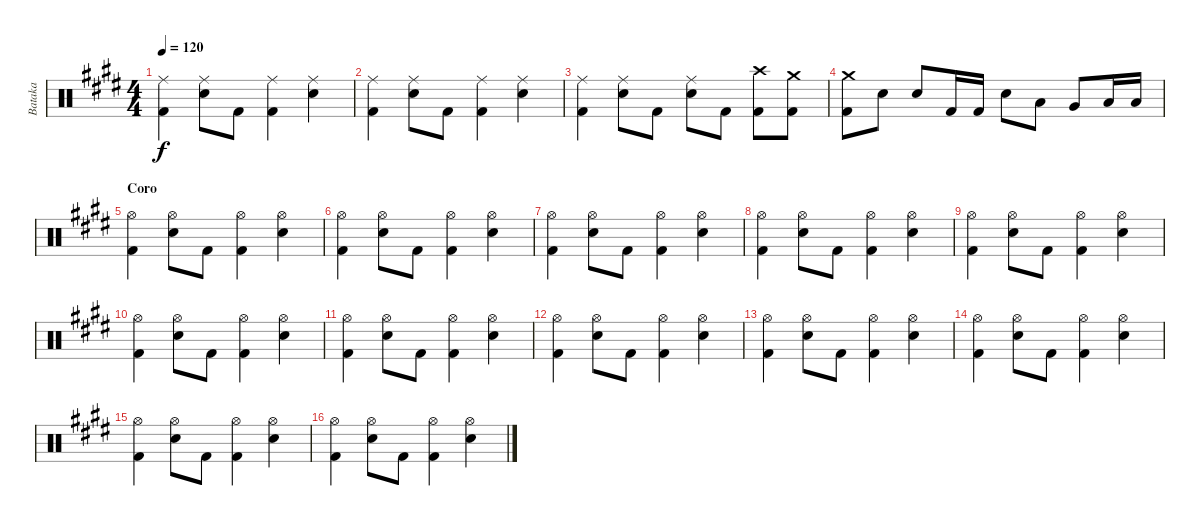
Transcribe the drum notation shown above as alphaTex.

\track ("Bataka" "Bataka") {instrument percussion}
\staff {score}
\articulation defaults
\ts (4 4)
\tempo 120
\clef neutral
\ks e
("Ride (middle)" "Kick (hit) 2").4{dy f} ("Ride (middle)" "Electric Snare (hit)").8 "Kick (hit) 2".8 ("Ride (middle)" "Kick (hit) 2").4 ("Ride (middle)" "Electric Snare (hit)").4 |
("Ride (middle)" "Kick (hit) 2").4 ("Ride (middle)" "Electric Snare (hit)").8 "Kick (hit) 2".8 ("Ride (middle)" "Kick (hit) 2").4 ("Ride (middle)" "Electric Snare (hit)").4 |
("Ride (middle)" "Kick (hit) 2").4 ("Ride (middle)" "Electric Snare (hit)").8 "Kick (hit) 2".8 ("Ride (middle)" "Electric Snare (hit)").8 "Kick (hit) 2".8 ("Crash high (hit)" "Kick (hit) 2").8 ("Crash medium (hit)" "Kick (hit) 2").8 |
("Crash medium (hit)" "Kick (hit) 2").8 "Electric Snare (hit)".8 "Electric Snare (hit)".8 "Kick (hit) 2".16 "Kick (hit) 2".16 "Electric Snare (hit)".8 "Low Tom (hit)".8 "Very Low Tom (hit)".8 "Low Floor Tom (hit)".16 "Low Floor Tom (hit)".16 |
\section ("" "Coro")
("Hi-Hat (open)" "Kick (hit) 2").4 ("Hi-Hat (open)" "Electric Snare (hit)").8 "Kick (hit) 2".8 ("Hi-Hat (open)" "Kick (hit) 2").4 ("Hi-Hat (open)" "Electric Snare (hit)").4 |
("Hi-Hat (open)" "Kick (hit) 2").4 ("Hi-Hat (open)" "Electric Snare (hit)").8 "Kick (hit) 2".8 ("Hi-Hat (open)" "Kick (hit) 2").4 ("Hi-Hat (open)" "Electric Snare (hit)").4 |
("Hi-Hat (open)" "Kick (hit) 2").4 ("Hi-Hat (open)" "Electric Snare (hit)").8 "Kick (hit) 2".8 ("Hi-Hat (open)" "Kick (hit) 2").4 ("Hi-Hat (open)" "Electric Snare (hit)").4 |
("Hi-Hat (open)" "Kick (hit) 2").4 ("Hi-Hat (open)" "Electric Snare (hit)").8 "Kick (hit) 2".8 ("Hi-Hat (open)" "Kick (hit) 2").4 ("Hi-Hat (open)" "Electric Snare (hit)").4 |
("Hi-Hat (open)" "Kick (hit) 2").4 ("Hi-Hat (open)" "Electric Snare (hit)").8 "Kick (hit) 2".8 ("Hi-Hat (open)" "Kick (hit) 2").4 ("Hi-Hat (open)" "Electric Snare (hit)").4 |
("Hi-Hat (open)" "Kick (hit) 2").4 ("Hi-Hat (open)" "Electric Snare (hit)").8 "Kick (hit) 2".8 ("Hi-Hat (open)" "Kick (hit) 2").4 ("Hi-Hat (open)" "Electric Snare (hit)").4 |
("Hi-Hat (open)" "Kick (hit) 2").4 ("Hi-Hat (open)" "Electric Snare (hit)").8 "Kick (hit) 2".8 ("Hi-Hat (open)" "Kick (hit) 2").4 ("Hi-Hat (open)" "Electric Snare (hit)").4 |
("Hi-Hat (open)" "Kick (hit) 2").4 ("Hi-Hat (open)" "Electric Snare (hit)").8 "Kick (hit) 2".8 ("Hi-Hat (open)" "Kick (hit) 2").4 ("Hi-Hat (open)" "Electric Snare (hit)").4 |
("Hi-Hat (open)" "Kick (hit) 2").4 ("Hi-Hat (open)" "Electric Snare (hit)").8 "Kick (hit) 2".8 ("Hi-Hat (open)" "Kick (hit) 2").4 ("Hi-Hat (open)" "Electric Snare (hit)").4 |
("Hi-Hat (open)" "Kick (hit) 2").4 ("Hi-Hat (open)" "Electric Snare (hit)").8 "Kick (hit) 2".8 ("Hi-Hat (open)" "Kick (hit) 2").4 ("Hi-Hat (open)" "Electric Snare (hit)").4 |
("Hi-Hat (open)" "Kick (hit) 2").4 ("Hi-Hat (open)" "Electric Snare (hit)").8 "Kick (hit) 2".8 ("Hi-Hat (open)" "Kick (hit) 2").4 ("Hi-Hat (open)" "Electric Snare (hit)").4 |
("Hi-Hat (open)" "Kick (hit) 2").4 ("Hi-Hat (open)" "Electric Snare (hit)").8 "Kick (hit) 2".8 ("Hi-Hat (open)" "Kick (hit) 2").4 ("Hi-Hat (open)" "Electric Snare (hit)").4
